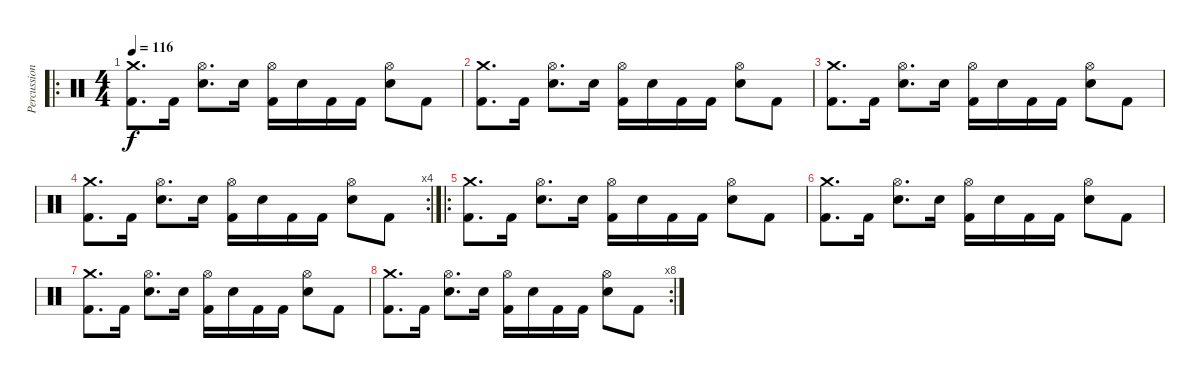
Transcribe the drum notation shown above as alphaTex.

\track ("Percussion" "Percussion") {instrument percussion}
\staff {score}
\articulation defaults
\ro
\ts (4 4)
\tempo 116
\clef neutral
\ks c
("Crash medium (hit)" "Kick (hit) 2").8{d dy f} "Kick (hit) 2".16 ("Hi-Hat (open)" "Electric Snare (hit)").8{d} "Electric Snare (hit)".16 ("Hi-Hat (open)" "Kick (hit) 2").16 "Electric Snare (hit)".16 "Kick (hit) 2".16 "Kick (hit) 2".16 ("Hi-Hat (open)" "Electric Snare (hit)").8 "Kick (hit) 2".8 |
("Crash medium (hit)" "Kick (hit) 2").8{d} "Kick (hit) 2".16 ("Hi-Hat (open)" "Electric Snare (hit)").8{d} "Electric Snare (hit)".16 ("Hi-Hat (open)" "Kick (hit) 2").16 "Electric Snare (hit)".16 "Kick (hit) 2".16 "Kick (hit) 2".16 ("Hi-Hat (open)" "Electric Snare (hit)").8 "Kick (hit) 2".8 |
("Crash medium (hit)" "Kick (hit) 2").8{d} "Kick (hit) 2".16 ("Hi-Hat (open)" "Electric Snare (hit)").8{d} "Electric Snare (hit)".16 ("Hi-Hat (open)" "Kick (hit) 2").16 "Electric Snare (hit)".16 "Kick (hit) 2".16 "Kick (hit) 2".16 ("Hi-Hat (open)" "Electric Snare (hit)").8 "Kick (hit) 2".8 |
\rc 4
("Crash medium (hit)" "Kick (hit) 2").8{d} "Kick (hit) 2".16 ("Hi-Hat (open)" "Electric Snare (hit)").8{d} "Electric Snare (hit)".16 ("Hi-Hat (open)" "Kick (hit) 2").16 "Electric Snare (hit)".16 "Kick (hit) 2".16 "Kick (hit) 2".16 ("Hi-Hat (open)" "Electric Snare (hit)").8 "Kick (hit) 2".8 |
\ro
("Crash medium (hit)" "Kick (hit) 2").8{d} "Kick (hit) 2".16 ("Hi-Hat (open)" "Electric Snare (hit)").8{d} "Electric Snare (hit)".16 ("Hi-Hat (open)" "Kick (hit) 2").16 "Electric Snare (hit)".16 "Kick (hit) 2".16 "Kick (hit) 2".16 ("Hi-Hat (open)" "Electric Snare (hit)").8 "Kick (hit) 2".8 |
("Crash medium (hit)" "Kick (hit) 2").8{d} "Kick (hit) 2".16 ("Hi-Hat (open)" "Electric Snare (hit)").8{d} "Electric Snare (hit)".16 ("Hi-Hat (open)" "Kick (hit) 2").16 "Electric Snare (hit)".16 "Kick (hit) 2".16 "Kick (hit) 2".16 ("Hi-Hat (open)" "Electric Snare (hit)").8 "Kick (hit) 2".8 |
("Crash medium (hit)" "Kick (hit) 2").8{d} "Kick (hit) 2".16 ("Hi-Hat (open)" "Electric Snare (hit)").8{d} "Electric Snare (hit)".16 ("Hi-Hat (open)" "Kick (hit) 2").16 "Electric Snare (hit)".16 "Kick (hit) 2".16 "Kick (hit) 2".16 ("Hi-Hat (open)" "Electric Snare (hit)").8 "Kick (hit) 2".8 |
\rc 8
("Crash medium (hit)" "Kick (hit) 2").8{d} "Kick (hit) 2".16 ("Hi-Hat (open)" "Electric Snare (hit)").8{d} "Electric Snare (hit)".16 ("Hi-Hat (open)" "Kick (hit) 2").16 "Electric Snare (hit)".16 "Kick (hit) 2".16 "Kick (hit) 2".16 ("Hi-Hat (open)" "Electric Snare (hit)").8 "Kick (hit) 2".8
